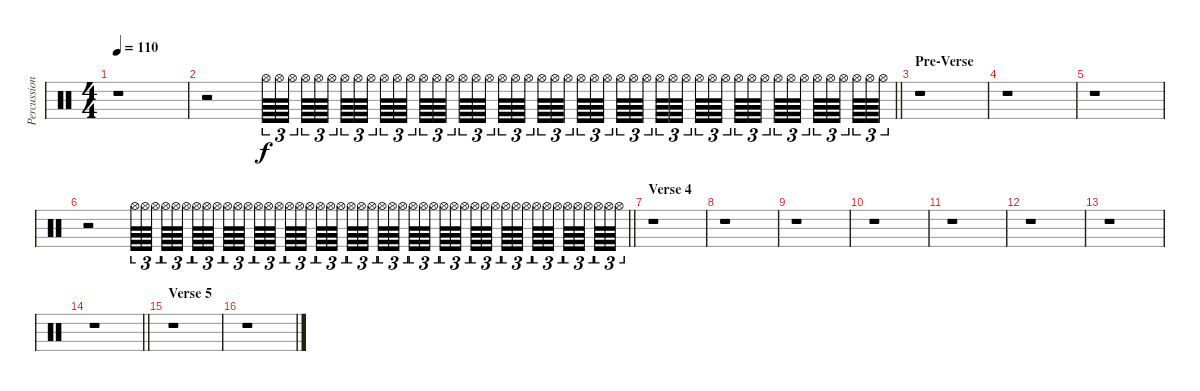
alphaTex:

\track ("Percussion" "Percussion") {instrument percussion}
\staff {score}
\articulation defaults
\ts (4 4)
\tempo 110
\clef neutral
\ks c
r.1{dy f} |
\barLineRight lightlight
r.2 "Hi-Hat (open)".64{tu (3 2)} "Hi-Hat (open)".64{tu (3 2)} "Hi-Hat (open)".64{tu (3 2) beam splitsecondary} "Hi-Hat (open)".64{tu (3 2)} "Hi-Hat (open)".64{tu (3 2)} "Hi-Hat (open)".64{tu (3 2) beam splitsecondary} "Hi-Hat (open)".64{tu (3 2)} "Hi-Hat (open)".64{tu (3 2)} "Hi-Hat (open)".64{tu (3 2) beam splitsecondary} "Hi-Hat (open)".64{tu (3 2)} "Hi-Hat (open)".64{tu (3 2)} "Hi-Hat (open)".64{tu (3 2) beam splitsecondary} "Hi-Hat (open)".64{tu (3 2)} "Hi-Hat (open)".64{tu (3 2)} "Hi-Hat (open)".64{tu (3 2) beam splitsecondary} "Hi-Hat (open)".64{tu (3 2)} "Hi-Hat (open)".64{tu (3 2)} "Hi-Hat (open)".64{tu (3 2) beam splitsecondary} "Hi-Hat (open)".64{tu (3 2)} "Hi-Hat (open)".64{tu (3 2)} "Hi-Hat (open)".64{tu (3 2) beam splitsecondary} "Hi-Hat (open)".64{tu (3 2)} "Hi-Hat (open)".64{tu (3 2)} "Hi-Hat (open)".64{tu (3 2)} "Hi-Hat (open)".64{tu (3 2)} "Hi-Hat (open)".64{tu (3 2)} "Hi-Hat (open)".64{tu (3 2) beam splitsecondary} "Hi-Hat (open)".64{tu (3 2)} "Hi-Hat (open)".64{tu (3 2)} "Hi-Hat (open)".64{tu (3 2) beam splitsecondary} "Hi-Hat (open)".64{tu (3 2)} "Hi-Hat (open)".64{tu (3 2)} "Hi-Hat (open)".64{tu (3 2) beam splitsecondary} "Hi-Hat (open)".64{tu (3 2)} "Hi-Hat (open)".64{tu (3 2)} "Hi-Hat (open)".64{tu (3 2) beam splitsecondary} "Hi-Hat (open)".64{tu (3 2)} "Hi-Hat (open)".64{tu (3 2)} "Hi-Hat (open)".64{tu (3 2) beam splitsecondary} "Hi-Hat (open)".64{tu (3 2)} "Hi-Hat (open)".64{tu (3 2)} "Hi-Hat (open)".64{tu (3 2) beam splitsecondary} "Hi-Hat (open)".64{tu (3 2)} "Hi-Hat (open)".64{tu (3 2)} "Hi-Hat (open)".64{tu (3 2) beam splitsecondary} "Hi-Hat (open)".64{tu (3 2)} "Hi-Hat (open)".64{tu (3 2)} "Hi-Hat (open)".64{tu (3 2)} |
\section ("" "Pre-Verse")
r.1 |
r.1 |
r.1 |
\barLineRight lightlight
r.2 "Hi-Hat (open)".64{tu (3 2)} "Hi-Hat (open)".64{tu (3 2)} "Hi-Hat (open)".64{tu (3 2) beam splitsecondary} "Hi-Hat (open)".64{tu (3 2)} "Hi-Hat (open)".64{tu (3 2)} "Hi-Hat (open)".64{tu (3 2) beam splitsecondary} "Hi-Hat (open)".64{tu (3 2)} "Hi-Hat (open)".64{tu (3 2)} "Hi-Hat (open)".64{tu (3 2) beam splitsecondary} "Hi-Hat (open)".64{tu (3 2)} "Hi-Hat (open)".64{tu (3 2)} "Hi-Hat (open)".64{tu (3 2) beam splitsecondary} "Hi-Hat (open)".64{tu (3 2)} "Hi-Hat (open)".64{tu (3 2)} "Hi-Hat (open)".64{tu (3 2) beam splitsecondary} "Hi-Hat (open)".64{tu (3 2)} "Hi-Hat (open)".64{tu (3 2)} "Hi-Hat (open)".64{tu (3 2) beam splitsecondary} "Hi-Hat (open)".64{tu (3 2)} "Hi-Hat (open)".64{tu (3 2)} "Hi-Hat (open)".64{tu (3 2) beam splitsecondary} "Hi-Hat (open)".64{tu (3 2)} "Hi-Hat (open)".64{tu (3 2)} "Hi-Hat (open)".64{tu (3 2)} "Hi-Hat (open)".64{tu (3 2)} "Hi-Hat (open)".64{tu (3 2)} "Hi-Hat (open)".64{tu (3 2) beam splitsecondary} "Hi-Hat (open)".64{tu (3 2)} "Hi-Hat (open)".64{tu (3 2)} "Hi-Hat (open)".64{tu (3 2) beam splitsecondary} "Hi-Hat (open)".64{tu (3 2)} "Hi-Hat (open)".64{tu (3 2)} "Hi-Hat (open)".64{tu (3 2) beam splitsecondary} "Hi-Hat (open)".64{tu (3 2)} "Hi-Hat (open)".64{tu (3 2)} "Hi-Hat (open)".64{tu (3 2) beam splitsecondary} "Hi-Hat (open)".64{tu (3 2)} "Hi-Hat (open)".64{tu (3 2)} "Hi-Hat (open)".64{tu (3 2) beam splitsecondary} "Hi-Hat (open)".64{tu (3 2)} "Hi-Hat (open)".64{tu (3 2)} "Hi-Hat (open)".64{tu (3 2) beam splitsecondary} "Hi-Hat (open)".64{tu (3 2)} "Hi-Hat (open)".64{tu (3 2)} "Hi-Hat (open)".64{tu (3 2) beam splitsecondary} "Hi-Hat (open)".64{tu (3 2)} "Hi-Hat (open)".64{tu (3 2)} "Hi-Hat (open)".64{tu (3 2)} |
\section ("" "Verse 4")
r.1 |
r.1 |
r.1 |
r.1 |
r.1 |
r.1 |
r.1 |
\barLineRight lightlight
r.1 |
\section ("" "Verse 5")
r.1 |
r.1
